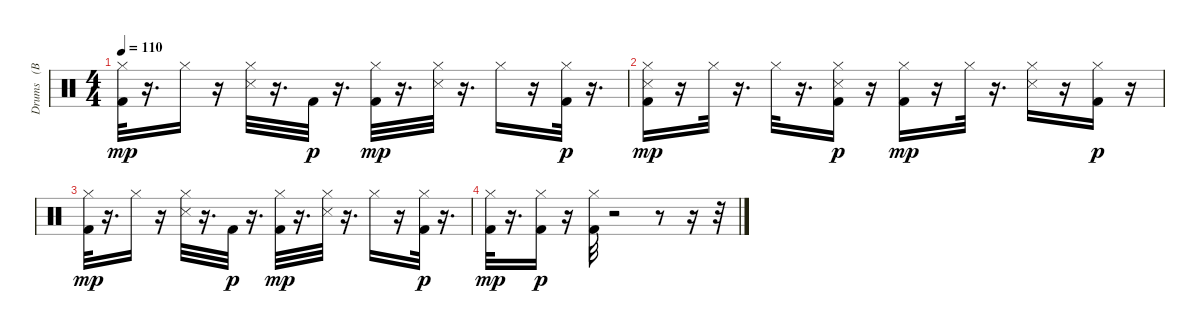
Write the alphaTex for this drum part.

\track ("Drums   (BB)" "Drums   (B") {instrument percussion}
\staff {score}
\articulation defaults
\ts (4 4)
\tempo 110
\clef neutral
\ks c
("Kick (hit) 2" "Hi-Hat (closed)").32{dy mp} r.16{d} "Hi-Hat (closed)".16 r.16 ("Hi-Hat (closed)" "Snare (side stick) 3").32 r.16{d} "Kick (hit) 2".32{dy p} r.16{d} ("Kick (hit) 2" "Hi-Hat (closed)").32{dy mp} r.16{d} ("Snare (side stick) 3" "Hi-Hat (closed)").32 r.16{d} "Hi-Hat (closed)".16 r.16 ("Hi-Hat (closed)" "Kick (hit) 2").32{dy p} r.16{d} |
("Kick (hit) 2" "Snare (side stick) 3" "Hi-Hat (closed)").16{dy mp} r.16 "Hi-Hat (closed)".32 r.16{d} "Hi-Hat (closed)".32 r.16{d} ("Snare (side stick) 3" "Hi-Hat (closed)" "Kick (hit) 2").16{dy p} r.16 ("Hi-Hat (closed)" "Kick (hit) 2").16{dy mp} r.16 "Hi-Hat (closed)".32 r.16{d} ("Snare (side stick) 3" "Hi-Hat (closed)").16 r.16 ("Hi-Hat (closed)" "Kick (hit) 2").16{dy p} r.16 |
("Kick (hit) 2" "Hi-Hat (closed)").32{dy mp} r.16{d} "Hi-Hat (closed)".16 r.16 ("Hi-Hat (closed)" "Snare (side stick) 3").32 r.16{d} "Kick (hit) 2".32{dy p} r.16{d} ("Kick (hit) 2" "Hi-Hat (closed)").32{dy mp} r.16{d} ("Snare (side stick) 3" "Hi-Hat (closed)").32 r.16{d} "Hi-Hat (closed)".16 r.16 ("Hi-Hat (closed)" "Kick (hit) 2").32{dy p} r.16{d} |
("Hi-Hat (closed)" "Kick (hit) 2").32{dy mp} r.16{d} ("Hi-Hat (closed)" "Kick (hit) 2").16{dy p} r.16 ("Hi-Hat (closed)" "Kick (hit) 2").32 r.2 r.8 r.16 r.32
